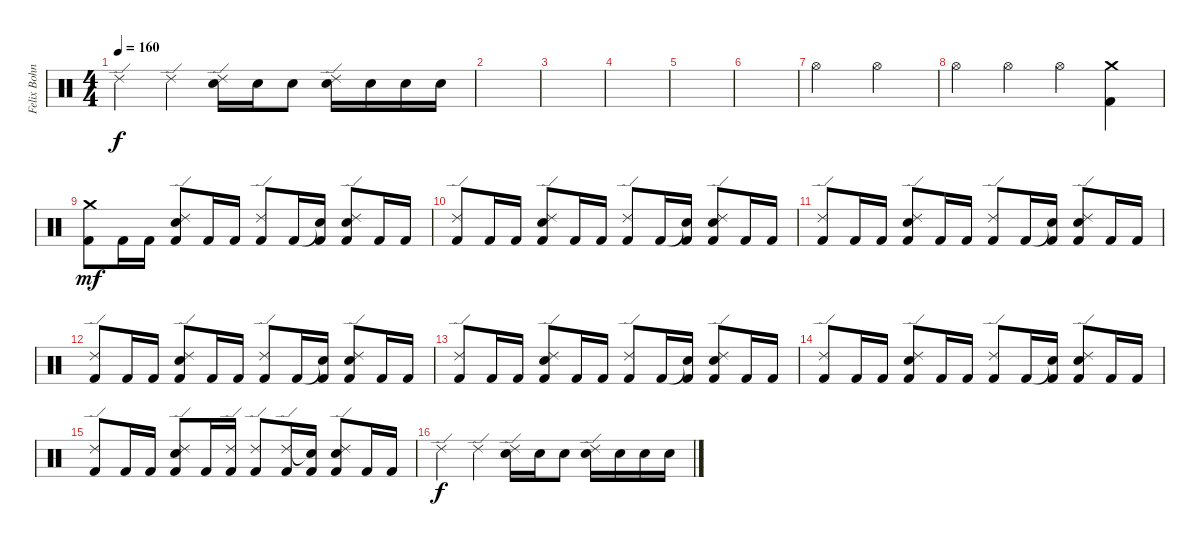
\track ("Felix Bohnke" "Felix Bohn") {instrument percussion}
\staff {score}
\articulation defaults
\ts (4 4)
\tempo 160
\clef neutral
\ks c "Ride (edge) 2".4{dy f} "Ride (edge) 2".4
("Ride (edge) 2" "Electric Snare (hit)").16 "Electric Snare (hit)".16 "Electric Snare (hit)".8 ("Ride (edge) 2" "Electric Snare (hit)").16 "Electric Snare (hit)".16 "Electric Snare (hit)".16 "Electric Snare (hit)".16 |
|
|
|
|
|
"Hi-Hat (open)".2 "Hi-Hat (open)".2 |
"Hi-Hat (open)".4 "Hi-Hat (open)".4 "Hi-Hat (open)".4 ("Crash medium (hit)" "Kick (hit) 2").4 |
("Crash medium (hit)" "Kick (hit) 2").8{dy mf} "Kick (hit) 2".16 "Kick (hit) 2".16 ("Ride (edge) 2" "Electric Snare (hit)" "Kick (hit) 2").8 "Kick (hit) 2".16 "Kick (hit) 2".16 ("Ride (edge) 2" "Kick (hit) 2").8 "Kick (hit) 2".16 ("Snare (hit)"{t} "Kick (hit) 2").16 ("Ride (edge) 2" "Electric Snare (hit)" "Kick (hit) 2").8 "Kick (hit) 2".16 "Kick (hit) 2".16 |
("Ride (edge) 2" "Kick (hit) 2").8 "Kick (hit) 2".16 "Kick (hit) 2".16 ("Ride (edge) 2" "Electric Snare (hit)" "Kick (hit) 2").8 "Kick (hit) 2".16 "Kick (hit) 2".16 ("Ride (edge) 2" "Kick (hit) 2").8 "Kick (hit) 2".16 ("Snare (hit)"{t} "Kick (hit) 2").16 ("Ride (edge) 2" "Electric Snare (hit)" "Kick (hit) 2").8 "Kick (hit) 2".16 "Kick (hit) 2".16 |
("Ride (edge) 2" "Kick (hit) 2").8 "Kick (hit) 2".16 "Kick (hit) 2".16 ("Ride (edge) 2" "Electric Snare (hit)" "Kick (hit) 2").8 "Kick (hit) 2".16 "Kick (hit) 2".16 ("Ride (edge) 2" "Kick (hit) 2").8 "Kick (hit) 2".16 ("Snare (hit)"{t} "Kick (hit) 2").16 ("Ride (edge) 2" "Electric Snare (hit)" "Kick (hit) 2").8 "Kick (hit) 2".16 "Kick (hit) 2".16 |
("Ride (edge) 2" "Kick (hit) 2").8 "Kick (hit) 2".16 "Kick (hit) 2".16 ("Ride (edge) 2" "Electric Snare (hit)" "Kick (hit) 2").8 "Kick (hit) 2".16 "Kick (hit) 2".16 ("Ride (edge) 2" "Kick (hit) 2").8 "Kick (hit) 2".16 ("Snare (hit)"{t} "Kick (hit) 2").16 ("Ride (edge) 2" "Electric Snare (hit)" "Kick (hit) 2").8 "Kick (hit) 2".16 "Kick (hit) 2".16 |
("Ride (edge) 2" "Kick (hit) 2").8 "Kick (hit) 2".16 "Kick (hit) 2".16 ("Ride (edge) 2" "Electric Snare (hit)" "Kick (hit) 2").8 "Kick (hit) 2".16 "Kick (hit) 2".16 ("Ride (edge) 2" "Kick (hit) 2").8 "Kick (hit) 2".16 ("Snare (hit)"{t} "Kick (hit) 2").16 ("Ride (edge) 2" "Electric Snare (hit)" "Kick (hit) 2").8 "Kick (hit) 2".16 "Kick (hit) 2".16 |
("Ride (edge) 2" "Kick (hit) 2").8 "Kick (hit) 2".16 "Kick (hit) 2".16 ("Ride (edge) 2" "Electric Snare (hit)" "Kick (hit) 2").8 "Kick (hit) 2".16 "Kick (hit) 2".16 ("Ride (edge) 2" "Kick (hit) 2").8 "Kick (hit) 2".16 ("Snare (hit)"{t} "Kick (hit) 2").16 ("Ride (edge) 2" "Electric Snare (hit)" "Kick (hit) 2").8 "Kick (hit) 2".16 "Kick (hit) 2".16 |
("Ride (edge) 2" "Kick (hit) 2").8 "Kick (hit) 2".16 "Kick (hit) 2".16 ("Ride (edge) 2" "Electric Snare (hit)" "Kick (hit) 2").8 "Kick (hit) 2".16 ("Ride (edge) 2" "Kick (hit) 2").16 ("Ride (edge) 2" "Kick (hit) 2").8 ("Ride (edge) 2" "Kick (hit) 2").16 ("Snare (hit)"{t} "Kick (hit) 2").16 ("Ride (edge) 2" "Electric Snare (hit)" "Kick (hit) 2").8 "Kick (hit) 2".16 "Kick (hit) 2".16 |
"Ride (edge) 2".4{dy f} "Ride (edge) 2".4 ("Ride (edge) 2" "Electric Snare (hit)").16 "Electric Snare (hit)".16 "Electric Snare (hit)".8 ("Ride (edge) 2" "Electric Snare (hit)").16 "Electric Snare (hit)".16 "Electric Snare (hit)".16 "Electric Snare (hit)".16
